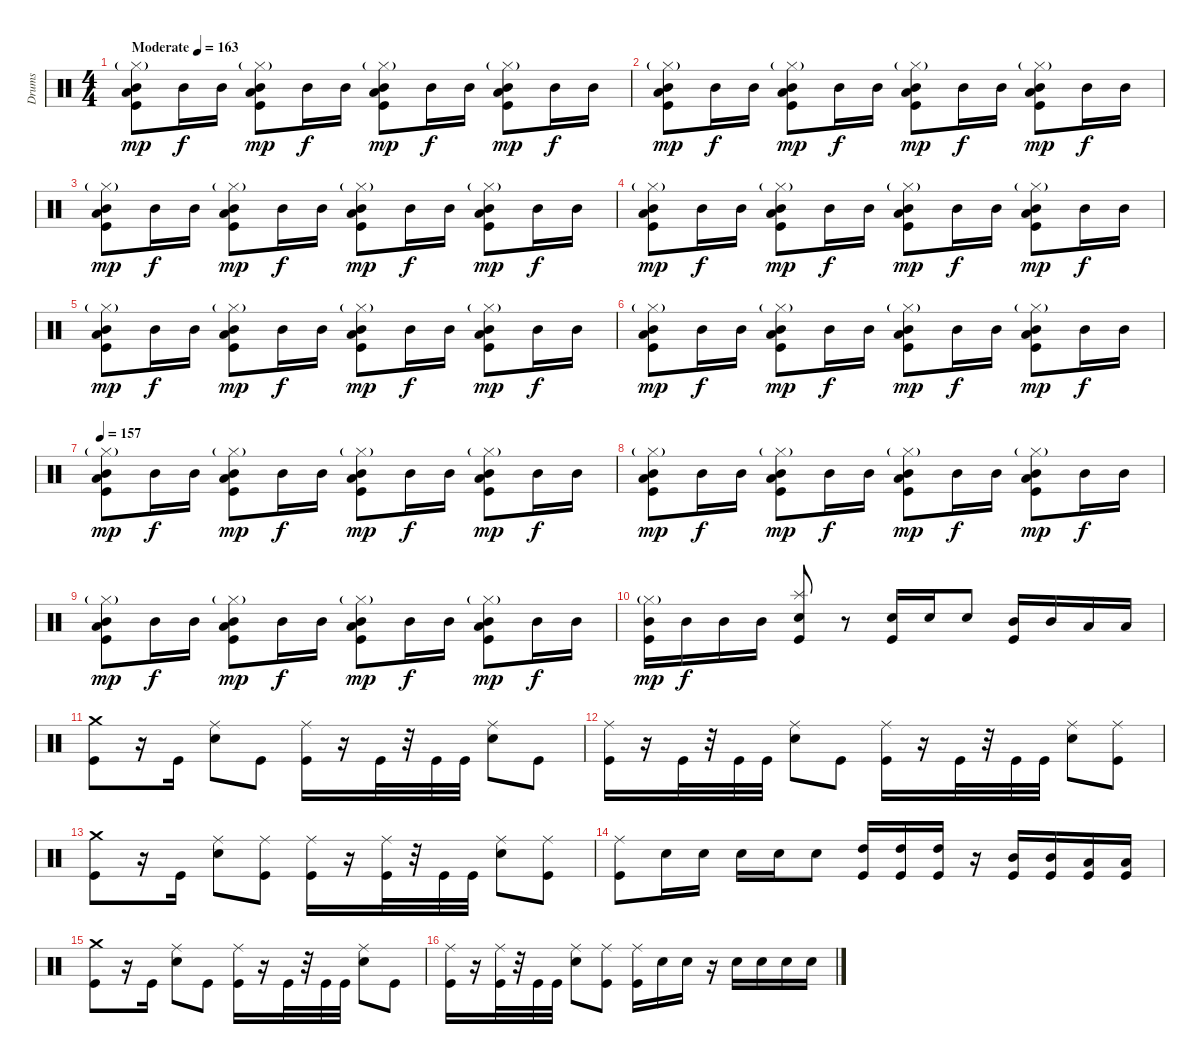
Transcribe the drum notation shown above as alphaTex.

\track ("Drums" "Drums") {instrument percussion}
\staff {score}
\articulation defaults
\ts (4 4)
\tempo (163 "Moderate")
\clef neutral
\ks c
("Hi-Hat (closed)"{g} "Low Tom (hit)" "Mid Tom (hit)" "Kick (hit)").8{dy mp} "Mid Tom (hit)".16{dy f} "Mid Tom (hit)".16 ("Hi-Hat (closed)"{g} "Low Tom (hit)" "Mid Tom (hit)" "Kick (hit)").8{dy mp} "Mid Tom (hit)".16{dy f} "Mid Tom (hit)".16 ("Hi-Hat (closed)"{g} "Low Tom (hit)" "Mid Tom (hit)" "Kick (hit)").8{dy mp} "Mid Tom (hit)".16{dy f} "Mid Tom (hit)".16 ("Hi-Hat (closed)"{g} "Low Tom (hit)" "Mid Tom (hit)" "Kick (hit)").8{dy mp} "Mid Tom (hit)".16{dy f} "Mid Tom (hit)".16 |
("Hi-Hat (closed)"{g} "Low Tom (hit)" "Mid Tom (hit)" "Kick (hit)").8{dy mp} "Mid Tom (hit)".16{dy f} "Mid Tom (hit)".16 ("Hi-Hat (closed)"{g} "Low Tom (hit)" "Mid Tom (hit)" "Kick (hit)").8{dy mp} "Mid Tom (hit)".16{dy f} "Mid Tom (hit)".16 ("Hi-Hat (closed)"{g} "Low Tom (hit)" "Mid Tom (hit)" "Kick (hit)").8{dy mp} "Mid Tom (hit)".16{dy f} "Mid Tom (hit)".16 ("Hi-Hat (closed)"{g} "Low Tom (hit)" "Mid Tom (hit)" "Kick (hit)").8{dy mp} "Mid Tom (hit)".16{dy f} "Mid Tom (hit)".16 |
("Hi-Hat (closed)"{g} "Low Tom (hit)" "Mid Tom (hit)" "Kick (hit)").8{dy mp} "Mid Tom (hit)".16{dy f} "Mid Tom (hit)".16 ("Hi-Hat (closed)"{g} "Low Tom (hit)" "Mid Tom (hit)" "Kick (hit)").8{dy mp} "Mid Tom (hit)".16{dy f} "Mid Tom (hit)".16 ("Hi-Hat (closed)"{g} "Low Tom (hit)" "Mid Tom (hit)" "Kick (hit)").8{dy mp} "Mid Tom (hit)".16{dy f} "Mid Tom (hit)".16 ("Hi-Hat (closed)"{g} "Low Tom (hit)" "Mid Tom (hit)" "Kick (hit)").8{dy mp} "Mid Tom (hit)".16{dy f} "Mid Tom (hit)".16 |
("Hi-Hat (closed)"{g} "Low Tom (hit)" "Mid Tom (hit)" "Kick (hit)").8{dy mp} "Mid Tom (hit)".16{dy f} "Mid Tom (hit)".16 ("Hi-Hat (closed)"{g} "Low Tom (hit)" "Mid Tom (hit)" "Kick (hit)").8{dy mp} "Mid Tom (hit)".16{dy f} "Mid Tom (hit)".16 ("Hi-Hat (closed)"{g} "Low Tom (hit)" "Mid Tom (hit)" "Kick (hit)").8{dy mp} "Mid Tom (hit)".16{dy f} "Mid Tom (hit)".16 ("Hi-Hat (closed)"{g} "Low Tom (hit)" "Mid Tom (hit)" "Kick (hit)").8{dy mp} "Mid Tom (hit)".16{dy f} "Mid Tom (hit)".16 |
("Hi-Hat (closed)"{g} "Low Tom (hit)" "Mid Tom (hit)" "Kick (hit)").8{dy mp} "Mid Tom (hit)".16{dy f} "Mid Tom (hit)".16 ("Hi-Hat (closed)"{g} "Low Tom (hit)" "Mid Tom (hit)" "Kick (hit)").8{dy mp} "Mid Tom (hit)".16{dy f} "Mid Tom (hit)".16 ("Hi-Hat (closed)"{g} "Low Tom (hit)" "Mid Tom (hit)" "Kick (hit)").8{dy mp} "Mid Tom (hit)".16{dy f} "Mid Tom (hit)".16 ("Hi-Hat (closed)"{g} "Low Tom (hit)" "Mid Tom (hit)" "Kick (hit)").8{dy mp} "Mid Tom (hit)".16{dy f} "Mid Tom (hit)".16 |
("Hi-Hat (closed)"{g} "Low Tom (hit)" "Mid Tom (hit)" "Kick (hit)").8{dy mp} "Mid Tom (hit)".16{dy f} "Mid Tom (hit)".16 ("Hi-Hat (closed)"{g} "Low Tom (hit)" "Mid Tom (hit)" "Kick (hit)").8{dy mp} "Mid Tom (hit)".16{dy f} "Mid Tom (hit)".16 ("Hi-Hat (closed)"{g} "Low Tom (hit)" "Mid Tom (hit)" "Kick (hit)").8{dy mp} "Mid Tom (hit)".16{dy f} "Mid Tom (hit)".16 ("Hi-Hat (closed)"{g} "Low Tom (hit)" "Mid Tom (hit)" "Kick (hit)").8{dy mp} "Mid Tom (hit)".16{dy f} "Mid Tom (hit)".16 |
\tempo 157
("Hi-Hat (closed)"{g} "Low Tom (hit)" "Mid Tom (hit)" "Kick (hit)").8{dy mp} "Mid Tom (hit)".16{dy f} "Mid Tom (hit)".16 ("Hi-Hat (closed)"{g} "Low Tom (hit)" "Mid Tom (hit)" "Kick (hit)").8{dy mp} "Mid Tom (hit)".16{dy f} "Mid Tom (hit)".16 ("Hi-Hat (closed)"{g} "Low Tom (hit)" "Mid Tom (hit)" "Kick (hit)").8{dy mp} "Mid Tom (hit)".16{dy f} "Mid Tom (hit)".16 ("Hi-Hat (closed)"{g} "Low Tom (hit)" "Mid Tom (hit)" "Kick (hit)").8{dy mp} "Mid Tom (hit)".16{dy f} "Mid Tom (hit)".16 |
("Hi-Hat (closed)"{g} "Low Tom (hit)" "Mid Tom (hit)" "Kick (hit)").8{dy mp} "Mid Tom (hit)".16{dy f} "Mid Tom (hit)".16 ("Hi-Hat (closed)"{g} "Low Tom (hit)" "Mid Tom (hit)" "Kick (hit)").8{dy mp} "Mid Tom (hit)".16{dy f} "Mid Tom (hit)".16 ("Hi-Hat (closed)"{g} "Low Tom (hit)" "Mid Tom (hit)" "Kick (hit)").8{dy mp} "Mid Tom (hit)".16{dy f} "Mid Tom (hit)".16 ("Hi-Hat (closed)"{g} "Low Tom (hit)" "Mid Tom (hit)" "Kick (hit)").8{dy mp} "Mid Tom (hit)".16{dy f} "Mid Tom (hit)".16 |
("Hi-Hat (closed)"{g} "Low Tom (hit)" "Mid Tom (hit)" "Kick (hit)").8{dy mp} "Mid Tom (hit)".16{dy f} "Mid Tom (hit)".16 ("Hi-Hat (closed)"{g} "Low Tom (hit)" "Mid Tom (hit)" "Kick (hit)").8{dy mp} "Mid Tom (hit)".16{dy f} "Mid Tom (hit)".16 ("Hi-Hat (closed)"{g} "Low Tom (hit)" "Mid Tom (hit)" "Kick (hit)").8{dy mp} "Mid Tom (hit)".16{dy f} "Mid Tom (hit)".16 ("Hi-Hat (closed)"{g} "Low Tom (hit)" "Mid Tom (hit)" "Kick (hit)").8{dy mp} "Mid Tom (hit)".16{dy f} "Mid Tom (hit)".16 |
("Hi-Hat (closed)"{g} "Mid Tom (hit)" "Kick (hit)").16{dy mp} "Mid Tom (hit)".16{dy f} "Mid Tom (hit)".16 "Mid Tom (hit)".16 ("Splash (hit)" "Snare (hit) 2" "Kick (hit)").8 r.8 ("Snare (hit) 2" "Kick (hit)").16 "Snare (hit) 2".16 "Snare (hit) 2".8 ("Mid Tom (hit)" "Kick (hit)").16 "Mid Tom (hit)".16 "Low Tom (hit)".16 "Low Tom (hit)".16 |
("Crash medium (hit)" "Kick (hit)").8 r.16 "Kick (hit)".16 ("Ride (middle)" "Snare (hit) 2").8 "Kick (hit)".8 ("Ride (middle)" "Kick (hit)").16 r.16 "Kick (hit)".32 r.32 "Kick (hit)".32 "Kick (hit)".32 ("Ride (middle)" "Snare (hit) 2").8 "Kick (hit)".8 |
("Ride (middle)" "Kick (hit)").16 r.16 "Kick (hit)".32 r.32 "Kick (hit)".32 "Kick (hit)".32 ("Ride (middle)" "Snare (hit) 2").8 "Kick (hit)".8 ("Ride (middle)" "Kick (hit)").16 r.16 "Kick (hit)".32 r.32 "Kick (hit)".32 "Kick (hit)".32 ("Ride (middle)" "Snare (hit) 2").8 ("Ride (middle)" "Kick (hit)").8 |
("Crash medium (hit)" "Kick (hit)").8 r.16 "Kick (hit)".16 ("Ride (middle)" "Snare (hit) 2").8 ("Ride (middle)" "Kick (hit)").8 ("Ride (middle)" "Kick (hit)").16 r.16 ("Ride (middle)" "Kick (hit)").32 r.32 "Kick (hit)".32 "Kick (hit)".32 ("Ride (middle)" "Snare (hit) 2").8 ("Ride (middle)" "Kick (hit)").8 |
("Ride (middle)" "Kick (hit)").8 "Snare (hit) 2".16 "Snare (hit) 2".16 "Snare (hit) 2".16 "Snare (hit) 2".16 "Snare (hit) 2".8 ("High Tom (hit)" "Kick (hit)").16 ("High Tom (hit)" "Kick (hit)").16 ("High Tom (hit)" "Kick (hit)").16 r.16 ("Mid Tom (hit)" "Kick (hit)").16 ("Mid Tom (hit)" "Kick (hit)").16 ("Low Tom (hit)" "Kick (hit)").16 ("Low Tom (hit)" "Kick (hit)").16 |
("Crash medium (hit)" "Kick (hit)").8 r.16 "Kick (hit)".16 ("Ride (middle)" "Snare (hit) 2").8 "Kick (hit)".8 ("Ride (middle)" "Kick (hit)").16 r.16 "Kick (hit)".32 r.32 "Kick (hit)".32 "Kick (hit)".32 ("Ride (middle)" "Snare (hit) 2").8 "Kick (hit)".8 |
("Ride (middle)" "Kick (hit)").16 r.16 ("Ride (middle)" "Kick (hit)").32 r.32 "Kick (hit)".32 "Kick (hit)".32 ("Ride (middle)" "Snare (hit) 2").8 ("Ride (middle)" "Kick (hit)").8 ("Ride (middle)" "Kick (hit)").16 "Snare (hit) 2".16 "Snare (hit) 2".16 r.16 "Snare (hit) 2".16 "Snare (hit) 2".16 "Snare (hit) 2".16 "Snare (hit) 2".16
